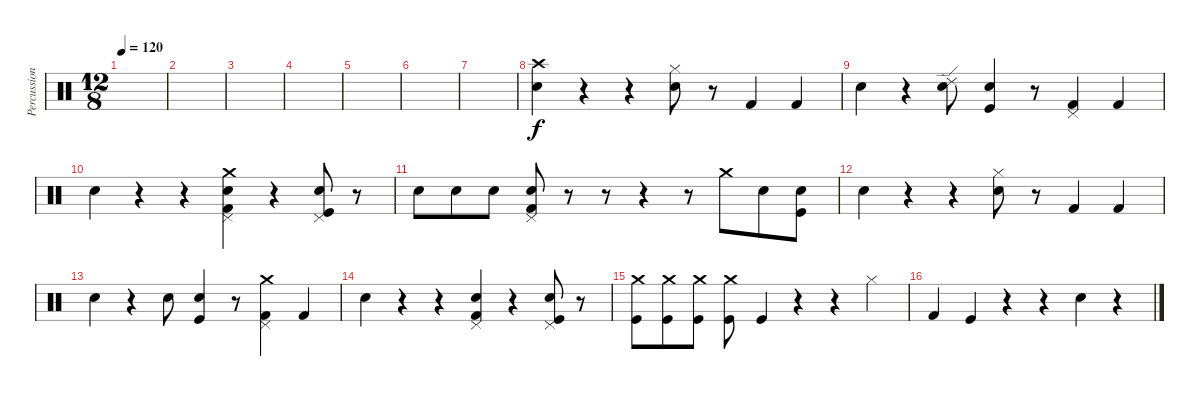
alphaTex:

\track ("Percussioni" "Percussion") {instrument percussion}
\staff {score}
\articulation defaults
\ts (12 8)
\tempo 120
\clef neutral
\ks c
|
|
|
|
|
|
|
("Snare (hit) 2" "Crash high (hit)").4 r.4 r.4 ("Electric Snare (hit)" "Hi-Hat (closed)").8 r.8 "Kick (hit) 2".4 "Kick (hit) 2".4 |
"Snare (hit) 2".4 r.4 ("Snare (hit) 2" "Ride (edge) 2").8 ("Snare (hit) 2" "Kick (hit)").4 r.8 ("Pedal Hi-Hat (hit)" "Kick (hit) 2").4 "Kick (hit) 2".4 |
"Electric Snare (hit)".4 r.4 r.4 ("Pedal Hi-Hat (hit)" "Snare (hit) 2" "Kick (hit) 2" "Crash medium (hit)").4 r.4 ("Kick (hit)" "Snare (hit) 2" "Pedal Hi-Hat (hit)").8 r.8 |
"Snare (hit) 2".8 "Snare (hit) 2".8 "Snare (hit) 2".8 ("Snare (hit) 2" "Kick (hit) 2" "Pedal Hi-Hat (hit)").8 r.8 r.8 r.4 r.8 "Crash medium (hit)".8 "Electric Snare (hit)".8 ("Kick (hit)" "Snare (hit) 2").8 |
"Snare (hit) 2".4 r.4 r.4 ("Electric Snare (hit)" "Hi-Hat (closed)").8 r.8 "Kick (hit) 2".4 "Kick (hit) 2".4 |
"Snare (hit) 2".4 r.4 "Snare (hit) 2".8 ("Snare (hit) 2" "Kick (hit)").4 r.8 ("Pedal Hi-Hat (hit)" "Kick (hit) 2" "Crash medium (hit)").4 "Kick (hit) 2".4 |
"Electric Snare (hit)".4 r.4 r.4 ("Pedal Hi-Hat (hit)" "Snare (hit) 2" "Kick (hit) 2").4 r.4 ("Kick (hit)" "Snare (hit) 2" "Pedal Hi-Hat (hit)").8 r.8 |
("Kick (hit)" "Crash medium (hit)").8 ("Kick (hit)" "Crash medium (hit)").8 ("Kick (hit)" "Crash medium (hit)").8 ("Kick (hit)" "Crash medium (hit)").8 "Kick (hit)".4 r.4 r.4 "Hi-Hat (closed)".4 |
"Kick (hit) 2".4 "Kick (hit)".4 r.4 r.4 "Electric Snare (hit)".4 r.4
